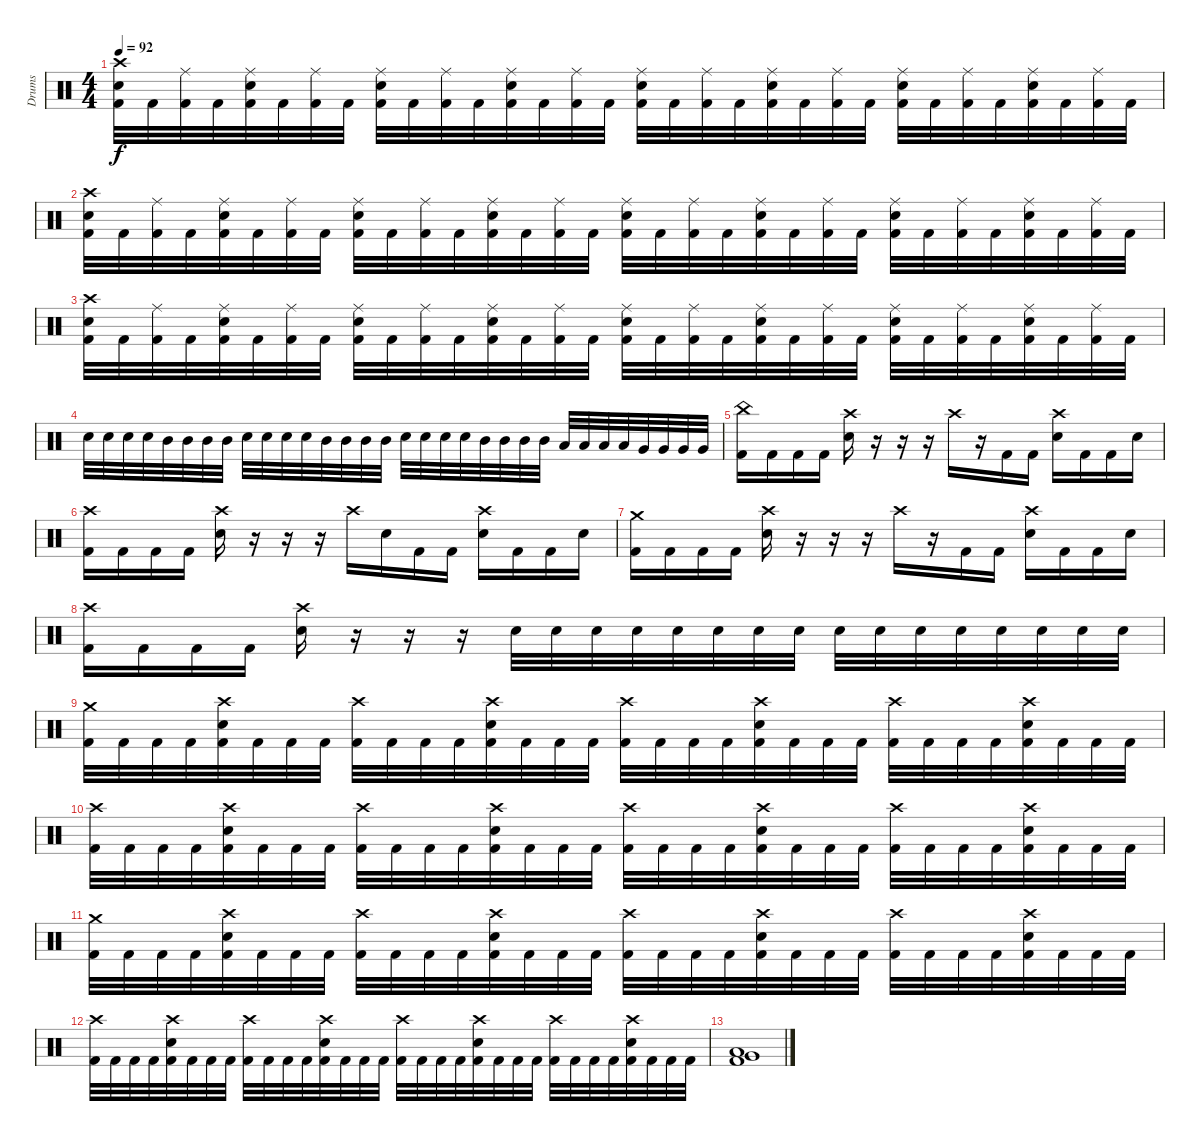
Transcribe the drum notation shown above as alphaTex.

\track ("Drums" "Drums") {instrument percussion}
\staff {score}
\articulation defaults
\ts (4 4)
\tempo 92
\clef neutral
\ks c
("Crash high (hit)" "Electric Snare (hit)" "Kick (hit) 2").32{dy f} "Kick (hit) 2".32 ("Ride (middle)" "Kick (hit) 2").32 "Kick (hit) 2".32 ("Ride (middle)" "Electric Snare (hit)" "Kick (hit) 2").32 "Kick (hit) 2".32 ("Ride (middle)" "Kick (hit) 2").32 "Kick (hit) 2".32 ("Ride (middle)" "Electric Snare (hit)" "Kick (hit) 2").32 "Kick (hit) 2".32 ("Ride (middle)" "Kick (hit) 2").32 "Kick (hit) 2".32 ("Ride (middle)" "Electric Snare (hit)" "Kick (hit) 2").32 "Kick (hit) 2".32 ("Ride (middle)" "Kick (hit) 2").32 "Kick (hit) 2".32 ("Ride (middle)" "Electric Snare (hit)" "Kick (hit) 2").32 "Kick (hit) 2".32 ("Ride (middle)" "Kick (hit) 2").32 "Kick (hit) 2".32 ("Ride (middle)" "Electric Snare (hit)" "Kick (hit) 2").32 "Kick (hit) 2".32 ("Ride (middle)" "Kick (hit) 2").32 "Kick (hit) 2".32 ("Ride (middle)" "Electric Snare (hit)" "Kick (hit) 2").32 "Kick (hit) 2".32 ("Ride (middle)" "Kick (hit) 2").32 "Kick (hit) 2".32 ("Ride (middle)" "Electric Snare (hit)" "Kick (hit) 2").32 "Kick (hit) 2".32 ("Ride (middle)" "Kick (hit) 2").32 "Kick (hit) 2".32 |
("Crash high (hit)" "Electric Snare (hit)" "Kick (hit) 2").32 "Kick (hit) 2".32 ("Ride (middle)" "Kick (hit) 2").32 "Kick (hit) 2".32 ("Ride (middle)" "Electric Snare (hit)" "Kick (hit) 2").32 "Kick (hit) 2".32 ("Ride (middle)" "Kick (hit) 2").32 "Kick (hit) 2".32 ("Ride (middle)" "Electric Snare (hit)" "Kick (hit) 2").32 "Kick (hit) 2".32 ("Ride (middle)" "Kick (hit) 2").32 "Kick (hit) 2".32 ("Ride (middle)" "Electric Snare (hit)" "Kick (hit) 2").32 "Kick (hit) 2".32 ("Ride (middle)" "Kick (hit) 2").32 "Kick (hit) 2".32 ("Ride (middle)" "Electric Snare (hit)" "Kick (hit) 2").32 "Kick (hit) 2".32 ("Ride (middle)" "Kick (hit) 2").32 "Kick (hit) 2".32 ("Ride (middle)" "Electric Snare (hit)" "Kick (hit) 2").32 "Kick (hit) 2".32 ("Ride (middle)" "Kick (hit) 2").32 "Kick (hit) 2".32 ("Ride (middle)" "Electric Snare (hit)" "Kick (hit) 2").32 "Kick (hit) 2".32 ("Ride (middle)" "Kick (hit) 2").32 "Kick (hit) 2".32 ("Ride (middle)" "Electric Snare (hit)" "Kick (hit) 2").32 "Kick (hit) 2".32 ("Ride (middle)" "Kick (hit) 2").32 "Kick (hit) 2".32 |
("Crash high (hit)" "Electric Snare (hit)" "Kick (hit) 2").32 "Kick (hit) 2".32 ("Ride (middle)" "Kick (hit) 2").32 "Kick (hit) 2".32 ("Ride (middle)" "Electric Snare (hit)" "Kick (hit) 2").32 "Kick (hit) 2".32 ("Ride (middle)" "Kick (hit) 2").32 "Kick (hit) 2".32 ("Ride (middle)" "Electric Snare (hit)" "Kick (hit) 2").32 "Kick (hit) 2".32 ("Ride (middle)" "Kick (hit) 2").32 "Kick (hit) 2".32 ("Ride (middle)" "Electric Snare (hit)" "Kick (hit) 2").32 "Kick (hit) 2".32 ("Ride (middle)" "Kick (hit) 2").32 "Kick (hit) 2".32 ("Ride (middle)" "Electric Snare (hit)" "Kick (hit) 2").32 "Kick (hit) 2".32 ("Ride (middle)" "Kick (hit) 2").32 "Kick (hit) 2".32 ("Ride (middle)" "Electric Snare (hit)" "Kick (hit) 2").32 "Kick (hit) 2".32 ("Ride (middle)" "Kick (hit) 2").32 "Kick (hit) 2".32 ("Ride (middle)" "Electric Snare (hit)" "Kick (hit) 2").32 "Kick (hit) 2".32 ("Ride (middle)" "Kick (hit) 2").32 "Kick (hit) 2".32 ("Ride (middle)" "Electric Snare (hit)" "Kick (hit) 2").32 "Kick (hit) 2".32 ("Ride (middle)" "Kick (hit) 2").32 "Kick (hit) 2".32 |
"Electric Snare (hit)".32 "Electric Snare (hit)".32 "Electric Snare (hit)".32 "Electric Snare (hit)".32 "Mid Tom (hit)".32 "Mid Tom (hit)".32 "Mid Tom (hit)".32 "Mid Tom (hit)".32 "Electric Snare (hit)".32 "Electric Snare (hit)".32 "Electric Snare (hit)".32 "Electric Snare (hit)".32 "Mid Tom (hit)".32 "Mid Tom (hit)".32 "Mid Tom (hit)".32 "Mid Tom (hit)".32 "Electric Snare (hit)".32 "Electric Snare (hit)".32 "Electric Snare (hit)".32 "Electric Snare (hit)".32 "Mid Tom (hit)".32 "Mid Tom (hit)".32 "Mid Tom (hit)".32 "Mid Tom (hit)".32 "Low Tom (hit)".32 "Low Tom (hit)".32 "Low Tom (hit)".32 "Low Tom (hit)".32 "Very Low Tom (hit)".32 "Very Low Tom (hit)".32 "Very Low Tom (hit)".32 "Very Low Tom (hit)".32 |
("China (hit)" "Kick (hit) 2").16 "Kick (hit) 2".16 "Kick (hit) 2".16 "Kick (hit) 2".16 ("Crash high (hit)" "Electric Snare (hit)").16 r.16 r.16 r.16 "Crash high (hit)".16 r.16 "Kick (hit) 2".16 "Kick (hit) 2".16 ("Crash high (hit)" "Electric Snare (hit)").16 "Kick (hit) 2".16 "Kick (hit) 2".16 "Electric Snare (hit)".16 |
("Crash high (hit)" "Kick (hit) 2").16 "Kick (hit) 2".16 "Kick (hit) 2".16 "Kick (hit) 2".16 ("Crash high (hit)" "Electric Snare (hit)").16 r.16 r.16 r.16 "Crash high (hit)".16 "Electric Snare (hit)".16 "Kick (hit) 2".16 "Kick (hit) 2".16 ("Crash high (hit)" "Electric Snare (hit)").16 "Kick (hit) 2".16 "Kick (hit) 2".16 "Electric Snare (hit)".16 |
("Crash medium (hit)" "Kick (hit) 2").16 "Kick (hit) 2".16 "Kick (hit) 2".16 "Kick (hit) 2".16 ("Crash high (hit)" "Electric Snare (hit)").16 r.16 r.16 r.16 "Crash high (hit)".16 r.16 "Kick (hit) 2".16 "Kick (hit) 2".16 ("Crash high (hit)" "Electric Snare (hit)").16 "Kick (hit) 2".16 "Kick (hit) 2".16 "Electric Snare (hit)".16 |
("Crash high (hit)" "Kick (hit) 2").16 "Kick (hit) 2".16 "Kick (hit) 2".16 "Kick (hit) 2".16 ("Crash high (hit)" "Electric Snare (hit)").16 r.16 r.16 r.16 "Electric Snare (hit)".32 "Electric Snare (hit)".32 "Electric Snare (hit)".32 "Electric Snare (hit)".32 "Electric Snare (hit)".32 "Electric Snare (hit)".32 "Electric Snare (hit)".32 "Electric Snare (hit)".32 "Electric Snare (hit)".32 "Electric Snare (hit)".32 "Electric Snare (hit)".32 "Electric Snare (hit)".32 "Electric Snare (hit)".32 "Electric Snare (hit)".32 "Electric Snare (hit)".32 "Electric Snare (hit)".32 |
("Crash medium (hit)" "Kick (hit) 2").32 "Kick (hit) 2".32 "Kick (hit) 2".32 "Kick (hit) 2".32 ("Crash high (hit)" "Electric Snare (hit)" "Kick (hit) 2").32 "Kick (hit) 2".32 "Kick (hit) 2".32 "Kick (hit) 2".32 ("Crash high (hit)" "Kick (hit) 2").32 "Kick (hit) 2".32 "Kick (hit) 2".32 "Kick (hit) 2".32 ("Crash high (hit)" "Electric Snare (hit)" "Kick (hit) 2").32 "Kick (hit) 2".32 "Kick (hit) 2".32 "Kick (hit) 2".32 ("Crash high (hit)" "Kick (hit) 2").32 "Kick (hit) 2".32 "Kick (hit) 2".32 "Kick (hit) 2".32 ("Crash high (hit)" "Electric Snare (hit)" "Kick (hit) 2").32 "Kick (hit) 2".32 "Kick (hit) 2".32 "Kick (hit) 2".32 ("Crash high (hit)" "Kick (hit) 2").32 "Kick (hit) 2".32 "Kick (hit) 2".32 "Kick (hit) 2".32 ("Crash high (hit)" "Electric Snare (hit)" "Kick (hit) 2").32 "Kick (hit) 2".32 "Kick (hit) 2".32 "Kick (hit) 2".32 |
("Crash high (hit)" "Kick (hit) 2").32 "Kick (hit) 2".32 "Kick (hit) 2".32 "Kick (hit) 2".32 ("Crash high (hit)" "Electric Snare (hit)" "Kick (hit) 2").32 "Kick (hit) 2".32 "Kick (hit) 2".32 "Kick (hit) 2".32 ("Crash high (hit)" "Kick (hit) 2").32 "Kick (hit) 2".32 "Kick (hit) 2".32 "Kick (hit) 2".32 ("Crash high (hit)" "Electric Snare (hit)" "Kick (hit) 2").32 "Kick (hit) 2".32 "Kick (hit) 2".32 "Kick (hit) 2".32 ("Crash high (hit)" "Kick (hit) 2").32 "Kick (hit) 2".32 "Kick (hit) 2".32 "Kick (hit) 2".32 ("Crash high (hit)" "Electric Snare (hit)" "Kick (hit) 2").32 "Kick (hit) 2".32 "Kick (hit) 2".32 "Kick (hit) 2".32 ("Crash high (hit)" "Kick (hit) 2").32 "Kick (hit) 2".32 "Kick (hit) 2".32 "Kick (hit) 2".32 ("Crash high (hit)" "Electric Snare (hit)" "Kick (hit) 2").32 "Kick (hit) 2".32 "Kick (hit) 2".32 "Kick (hit) 2".32 |
("Crash medium (hit)" "Kick (hit) 2").32 "Kick (hit) 2".32 "Kick (hit) 2".32 "Kick (hit) 2".32 ("Crash high (hit)" "Electric Snare (hit)" "Kick (hit) 2").32 "Kick (hit) 2".32 "Kick (hit) 2".32 "Kick (hit) 2".32 ("Crash high (hit)" "Kick (hit) 2").32 "Kick (hit) 2".32 "Kick (hit) 2".32 "Kick (hit) 2".32 ("Crash high (hit)" "Electric Snare (hit)" "Kick (hit) 2").32 "Kick (hit) 2".32 "Kick (hit) 2".32 "Kick (hit) 2".32 ("Crash high (hit)" "Kick (hit) 2").32 "Kick (hit) 2".32 "Kick (hit) 2".32 "Kick (hit) 2".32 ("Crash high (hit)" "Electric Snare (hit)" "Kick (hit) 2").32 "Kick (hit) 2".32 "Kick (hit) 2".32 "Kick (hit) 2".32 ("Crash high (hit)" "Kick (hit) 2").32 "Kick (hit) 2".32 "Kick (hit) 2".32 "Kick (hit) 2".32 ("Crash high (hit)" "Electric Snare (hit)" "Kick (hit) 2").32 "Kick (hit) 2".32 "Kick (hit) 2".32 "Kick (hit) 2".32 |
("Crash high (hit)" "Kick (hit) 2").32 "Kick (hit) 2".32 "Kick (hit) 2".32 "Kick (hit) 2".32 ("Crash high (hit)" "Electric Snare (hit)" "Kick (hit) 2").32 "Kick (hit) 2".32 "Kick (hit) 2".32 "Kick (hit) 2".32 ("Crash high (hit)" "Kick (hit) 2").32 "Kick (hit) 2".32 "Kick (hit) 2".32 "Kick (hit) 2".32 ("Crash high (hit)" "Electric Snare (hit)" "Kick (hit) 2").32 "Kick (hit) 2".32 "Kick (hit) 2".32 "Kick (hit) 2".32 ("Crash high (hit)" "Kick (hit) 2").32 "Kick (hit) 2".32 "Kick (hit) 2".32 "Kick (hit) 2".32 ("Crash high (hit)" "Electric Snare (hit)" "Kick (hit) 2").32 "Kick (hit) 2".32 "Kick (hit) 2".32 "Kick (hit) 2".32 ("Crash high (hit)" "Kick (hit) 2").32 "Kick (hit) 2".32 "Kick (hit) 2".32 "Kick (hit) 2".32 ("Crash high (hit)" "Electric Snare (hit)" "Kick (hit) 2").32 "Kick (hit) 2".32 "Kick (hit) 2".32 "Kick (hit) 2".32 |
("Low Tom (hit)" "Very Low Tom (hit)" "Kick (hit) 2").1
